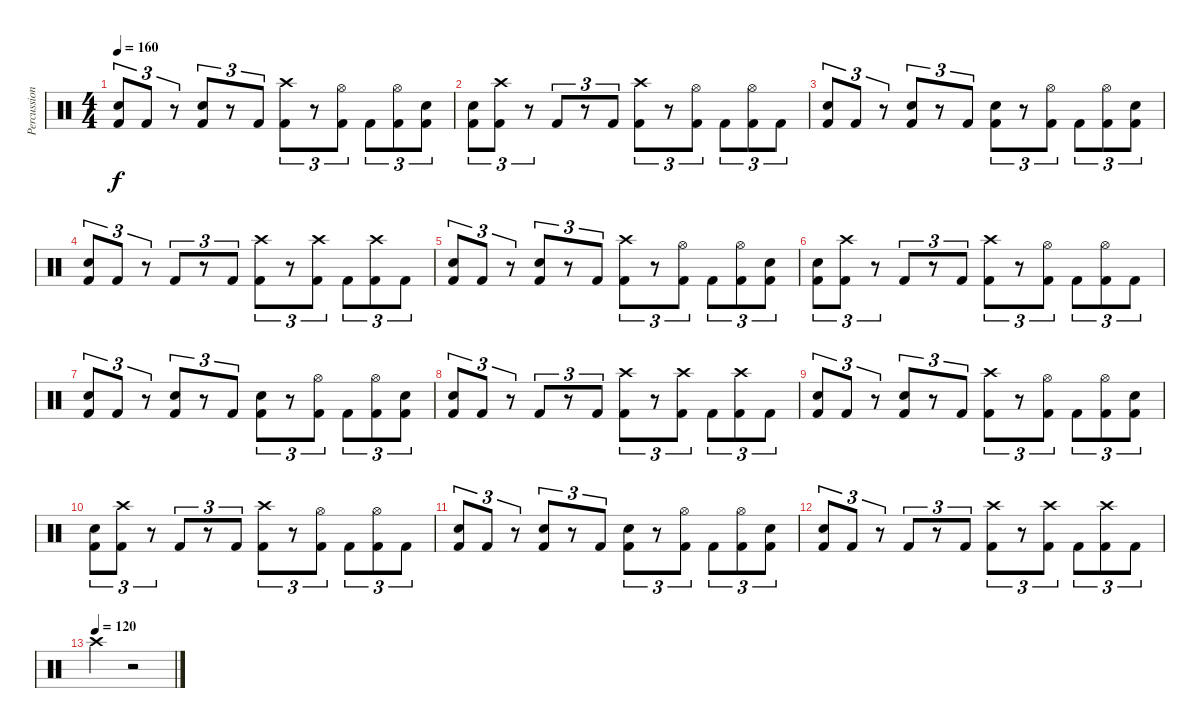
\track ("Percussion" "Percussion") {instrument percussion}
\staff {score}
\articulation defaults
\ts (4 4)
\tempo 160
\clef neutral
\ks c
("Snare (hit) 2" "Kick (hit) 2").8{tu (3 2) dy f} "Kick (hit) 2".8{tu (3 2)} r.8{tu (3 2)} ("Snare (hit) 2" "Kick (hit) 2").8{tu (3 2)} r.8{tu (3 2)} "Kick (hit) 2".8{tu (3 2)} ("Crash high (hit)" "Kick (hit) 2").8{tu (3 2)} r.8{tu (3 2)} ("Hi-Hat (open)" "Kick (hit) 2").8{tu (3 2)} "Kick (hit) 2".8{tu (3 2)} ("Hi-Hat (open)" "Kick (hit) 2").8{tu (3 2)} ("Snare (hit) 2" "Kick (hit) 2").8{tu (3 2)} |
("Snare (hit) 2" "Kick (hit) 2").8{tu (3 2)} ("Crash high (hit)" "Kick (hit) 2").8{tu (3 2)} r.8{tu (3 2)} "Kick (hit) 2".8{tu (3 2)} r.8{tu (3 2)} "Kick (hit) 2".8{tu (3 2)} ("Crash high (hit)" "Kick (hit) 2").8{tu (3 2)} r.8{tu (3 2)} ("Hi-Hat (open)" "Kick (hit) 2").8{tu (3 2)} "Kick (hit) 2".8{tu (3 2)} ("Hi-Hat (open)" "Kick (hit) 2").8{tu (3 2)} "Kick (hit) 2".8{tu (3 2)} |
("Snare (hit) 2" "Kick (hit) 2").8{tu (3 2)} "Kick (hit) 2".8{tu (3 2)} r.8{tu (3 2)} ("Snare (hit) 2" "Kick (hit) 2").8{tu (3 2)} r.8{tu (3 2)} "Kick (hit) 2".8{tu (3 2)} ("Snare (hit) 2" "Kick (hit) 2").8{tu (3 2)} r.8{tu (3 2)} ("Hi-Hat (open)" "Kick (hit) 2").8{tu (3 2)} "Kick (hit) 2".8{tu (3 2)} ("Hi-Hat (open)" "Kick (hit) 2").8{tu (3 2)} ("Snare (hit) 2" "Kick (hit) 2").8{tu (3 2)} |
("Snare (hit) 2" "Kick (hit) 2").8{tu (3 2)} "Kick (hit) 2".8{tu (3 2)} r.8{tu (3 2)} "Kick (hit) 2".8{tu (3 2)} r.8{tu (3 2)} "Kick (hit) 2".8{tu (3 2)} ("Crash high (hit)" "Kick (hit) 2").8{tu (3 2)} r.8{tu (3 2)} ("Crash high (hit)" "Kick (hit) 2").8{tu (3 2)} "Kick (hit) 2".8{tu (3 2)} ("Crash high (hit)" "Kick (hit) 2").8{tu (3 2)} "Kick (hit) 2".8{tu (3 2)} |
("Snare (hit) 2" "Kick (hit) 2").8{tu (3 2)} "Kick (hit) 2".8{tu (3 2)} r.8{tu (3 2)} ("Snare (hit) 2" "Kick (hit) 2").8{tu (3 2)} r.8{tu (3 2)} "Kick (hit) 2".8{tu (3 2)} ("Crash high (hit)" "Kick (hit) 2").8{tu (3 2)} r.8{tu (3 2)} ("Hi-Hat (open)" "Kick (hit) 2").8{tu (3 2)} "Kick (hit) 2".8{tu (3 2)} ("Hi-Hat (open)" "Kick (hit) 2").8{tu (3 2)} ("Snare (hit) 2" "Kick (hit) 2").8{tu (3 2)} |
("Snare (hit) 2" "Kick (hit) 2").8{tu (3 2)} ("Crash high (hit)" "Kick (hit) 2").8{tu (3 2)} r.8{tu (3 2)} "Kick (hit) 2".8{tu (3 2)} r.8{tu (3 2)} "Kick (hit) 2".8{tu (3 2)} ("Crash high (hit)" "Kick (hit) 2").8{tu (3 2)} r.8{tu (3 2)} ("Hi-Hat (open)" "Kick (hit) 2").8{tu (3 2)} "Kick (hit) 2".8{tu (3 2)} ("Hi-Hat (open)" "Kick (hit) 2").8{tu (3 2)} "Kick (hit) 2".8{tu (3 2)} |
("Snare (hit) 2" "Kick (hit) 2").8{tu (3 2)} "Kick (hit) 2".8{tu (3 2)} r.8{tu (3 2)} ("Snare (hit) 2" "Kick (hit) 2").8{tu (3 2)} r.8{tu (3 2)} "Kick (hit) 2".8{tu (3 2)} ("Snare (hit) 2" "Kick (hit) 2").8{tu (3 2)} r.8{tu (3 2)} ("Hi-Hat (open)" "Kick (hit) 2").8{tu (3 2)} "Kick (hit) 2".8{tu (3 2)} ("Hi-Hat (open)" "Kick (hit) 2").8{tu (3 2)} ("Snare (hit) 2" "Kick (hit) 2").8{tu (3 2)} |
("Snare (hit) 2" "Kick (hit) 2").8{tu (3 2)} "Kick (hit) 2".8{tu (3 2)} r.8{tu (3 2)} "Kick (hit) 2".8{tu (3 2)} r.8{tu (3 2)} "Kick (hit) 2".8{tu (3 2)} ("Crash high (hit)" "Kick (hit) 2").8{tu (3 2)} r.8{tu (3 2)} ("Crash high (hit)" "Kick (hit) 2").8{tu (3 2)} "Kick (hit) 2".8{tu (3 2)} ("Crash high (hit)" "Kick (hit) 2").8{tu (3 2)} "Kick (hit) 2".8{tu (3 2)} |
("Snare (hit) 2" "Kick (hit) 2").8{tu (3 2)} "Kick (hit) 2".8{tu (3 2)} r.8{tu (3 2)} ("Snare (hit) 2" "Kick (hit) 2").8{tu (3 2)} r.8{tu (3 2)} "Kick (hit) 2".8{tu (3 2)} ("Crash high (hit)" "Kick (hit) 2").8{tu (3 2)} r.8{tu (3 2)} ("Hi-Hat (open)" "Kick (hit) 2").8{tu (3 2)} "Kick (hit) 2".8{tu (3 2)} ("Hi-Hat (open)" "Kick (hit) 2").8{tu (3 2)} ("Snare (hit) 2" "Kick (hit) 2").8{tu (3 2)} |
("Snare (hit) 2" "Kick (hit) 2").8{tu (3 2)} ("Crash high (hit)" "Kick (hit) 2").8{tu (3 2)} r.8{tu (3 2)} "Kick (hit) 2".8{tu (3 2)} r.8{tu (3 2)} "Kick (hit) 2".8{tu (3 2)} ("Crash high (hit)" "Kick (hit) 2").8{tu (3 2)} r.8{tu (3 2)} ("Hi-Hat (open)" "Kick (hit) 2").8{tu (3 2)} "Kick (hit) 2".8{tu (3 2)} ("Hi-Hat (open)" "Kick (hit) 2").8{tu (3 2)} "Kick (hit) 2".8{tu (3 2)} |
("Snare (hit) 2" "Kick (hit) 2").8{tu (3 2)} "Kick (hit) 2".8{tu (3 2)} r.8{tu (3 2)} ("Snare (hit) 2" "Kick (hit) 2").8{tu (3 2)} r.8{tu (3 2)} "Kick (hit) 2".8{tu (3 2)} ("Snare (hit) 2" "Kick (hit) 2").8{tu (3 2)} r.8{tu (3 2)} ("Hi-Hat (open)" "Kick (hit) 2").8{tu (3 2)} "Kick (hit) 2".8{tu (3 2)} ("Hi-Hat (open)" "Kick (hit) 2").8{tu (3 2)} ("Snare (hit) 2" "Kick (hit) 2").8{tu (3 2)} |
("Snare (hit) 2" "Kick (hit) 2").8{tu (3 2)} "Kick (hit) 2".8{tu (3 2)} r.8{tu (3 2)} "Kick (hit) 2".8{tu (3 2)} r.8{tu (3 2)} "Kick (hit) 2".8{tu (3 2)} ("Crash high (hit)" "Kick (hit) 2").8{tu (3 2)} r.8{tu (3 2)} ("Crash high (hit)" "Kick (hit) 2").8{tu (3 2)} "Kick (hit) 2".8{tu (3 2)} ("Crash high (hit)" "Kick (hit) 2").8{tu (3 2)} "Kick (hit) 2".8{tu (3 2)} |
\tempo 140
\tempo (120)
"Crash high (hit)".4 r.2
